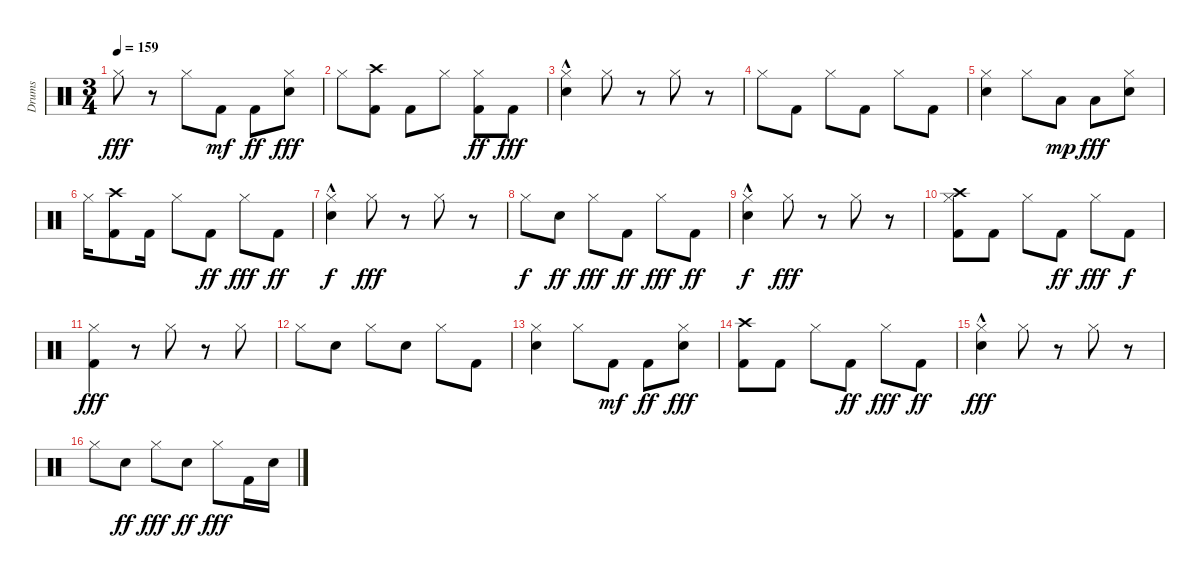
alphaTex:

\track ("Drums" "Drums") {instrument percussion}
\staff {score}
\articulation defaults
\ts (3 4)
\tempo 159
\clef neutral
\ks c "Hi-Hat (closed)".8{dy fff}
r.8 "Hi-Hat (closed)".8 "Kick (hit) 2".8{dy mf} "Kick (hit) 2".8{dy ff} ("Hi-Hat (closed)" "Snare (hit) 2").8{dy fff} |
"Hi-Hat (closed)".8 ("Kick (hit) 2" "Crash high (hit)").8 "Kick (hit) 2".8 "Hi-Hat (closed)".8 ("Kick (hit) 2" "Hi-Hat (closed)").8{dy ff} "Kick (hit) 2".8{dy fff} |
("Hi-Hat (closed)" "Snare (hit) 2"{hac}).4 "Hi-Hat (closed)".8 r.8 "Hi-Hat (closed)".8 r.8 |
"Hi-Hat (closed)".8 "Kick (hit) 2".8 "Hi-Hat (closed)".8 "Kick (hit) 2".8 "Hi-Hat (closed)".8 "Kick (hit) 2".8 |
("Hi-Hat (closed)" "Snare (hit) 2").4 "Hi-Hat (closed)".8 "Low Tom (hit)".8{dy mp} "Low Tom (hit)".8{dy fff} ("Hi-Hat (closed)" "Snare (hit) 2").8 |
"Hi-Hat (closed)".16 ("Crash high (hit)" "Kick (hit) 2").8 "Kick (hit) 2".16 "Hi-Hat (closed)".8 "Kick (hit) 2".8{dy ff} "Hi-Hat (closed)".8{dy fff} "Kick (hit) 2".8{dy ff} |
("Hi-Hat (closed)"{hac} "Snare (hit) 2").4{dy f} "Hi-Hat (closed)".8{dy fff} r.8 "Hi-Hat (closed)".8 r.8 |
"Hi-Hat (closed)".8{dy f} "Snare (hit) 2".8{dy ff} "Hi-Hat (closed)".8{dy fff} "Kick (hit) 2".8{dy ff} "Hi-Hat (closed)".8{dy fff} "Kick (hit) 2".8{dy ff} |
("Hi-Hat (closed)"{hac} "Snare (hit) 2").4{dy f} "Hi-Hat (closed)".8{dy fff} r.8 "Hi-Hat (closed)".8 r.8 |
("Kick (hit) 2" "Hi-Hat (closed)" "Crash high (hit)").8 "Kick (hit) 2".8 "Hi-Hat (closed)".8 "Kick (hit) 2".8{dy ff} "Hi-Hat (closed)".8{dy fff} "Kick (hit) 2".8{dy f} |
("Hi-Hat (closed)" "Kick (hit) 2").4{dy fff} r.8 "Hi-Hat (closed)".8 r.8 "Hi-Hat (closed)".8 |
"Hi-Hat (closed)".8 "Snare (hit) 2".8 "Hi-Hat (closed)".8 "Snare (hit) 2".8 "Hi-Hat (closed)".8 "Kick (hit) 2".8 |
("Hi-Hat (closed)" "Snare (hit) 2").4 "Hi-Hat (closed)".8 "Kick (hit) 2".8{dy mf} "Kick (hit) 2".8{dy ff} ("Hi-Hat (closed)" "Snare (hit) 2").8{dy fff} |
("Kick (hit) 2" "Crash high (hit)").8 "Kick (hit) 2".8 "Hi-Hat (closed)".8 "Kick (hit) 2".8{dy ff} "Hi-Hat (closed)".8{dy fff} "Kick (hit) 2".8{dy ff} |
("Hi-Hat (closed)" "Snare (hit) 2"{hac}).4{dy fff} "Hi-Hat (closed)".8 r.8 "Hi-Hat (closed)".8 r.8 |
"Hi-Hat (closed)".8 "Snare (hit) 2".8{dy ff} "Hi-Hat (closed)".8{dy fff} "Snare (hit) 2".8{dy ff} "Hi-Hat (closed)".8{dy fff} "Kick (hit) 2".16 "Snare (hit) 2".16
